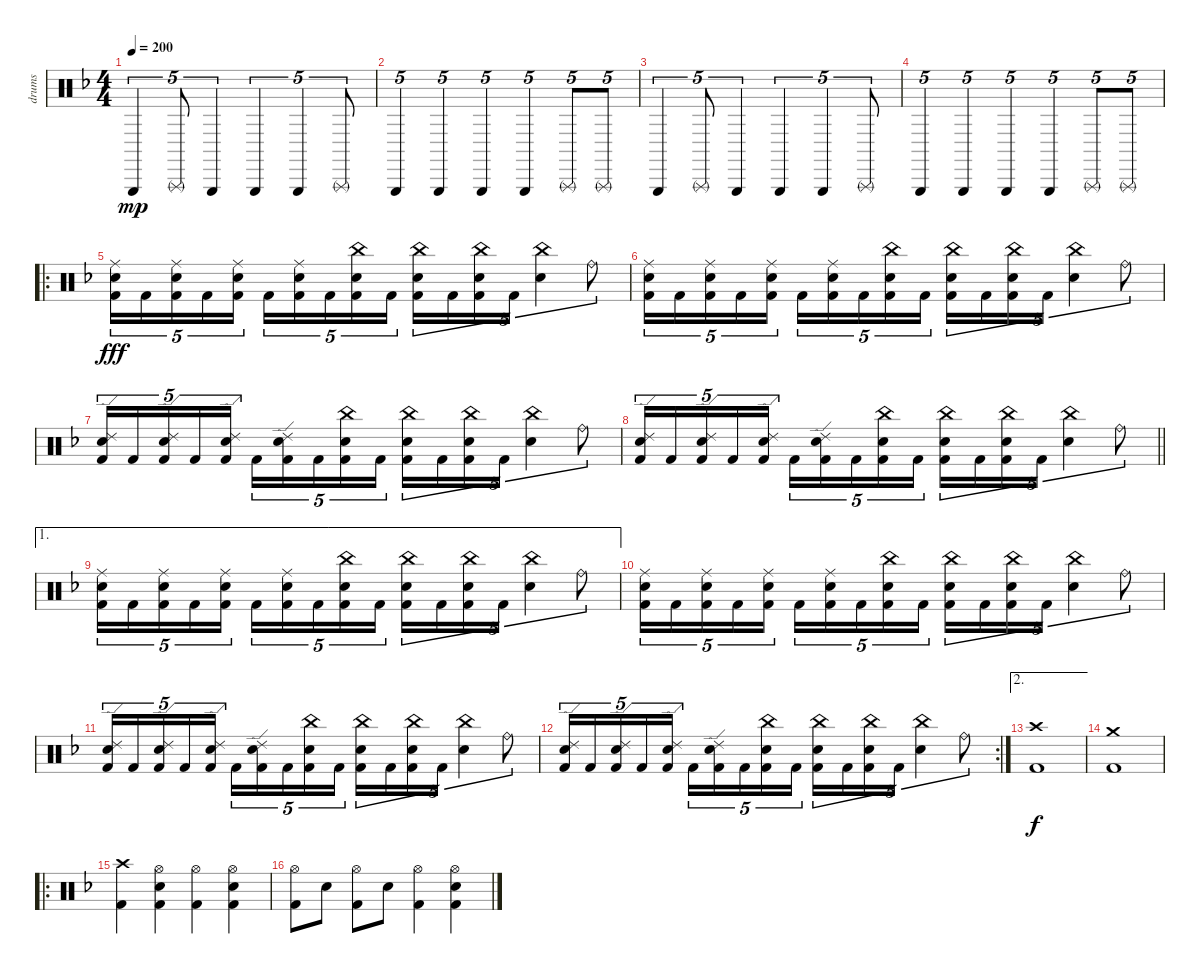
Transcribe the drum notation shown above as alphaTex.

\track ("drums" "drums") {instrument percussion}
\staff {score}
\articulation defaults
\ts (4 4)
\tempo 200
\clef neutral
\ks dminor "Triangle (hit)".4{tu (5 4) dy mp} "Triangle (rnute)".8{tu (5 4)} "Triangle (hit)".4{tu (5 4)} "Triangle (hit)".4{tu (5 4)} "Triangle (hit)".4{tu (5 4)} "Triangle (rnute)".8{tu (5 4)}
|
"Triangle (hit)".4{tu (5 4)} "Triangle (hit)".4{tu (5 4)} "Triangle (hit)".4{tu (5 4)} "Triangle (hit)".4{tu (5 4)} "Triangle (rnute)".8{tu (5 4)} "Triangle (rnute)".8{tu (5 4)} |
"Triangle (hit)".4{tu (5 4)} "Triangle (rnute)".8{tu (5 4)} "Triangle (hit)".4{tu (5 4)} "Triangle (hit)".4{tu (5 4)} "Triangle (hit)".4{tu (5 4)} "Triangle (rnute)".8{tu (5 4)} |
"Triangle (hit)".4{tu (5 4)} "Triangle (hit)".4{tu (5 4)} "Triangle (hit)".4{tu (5 4)} "Triangle (hit)".4{tu (5 4)} "Triangle (rnute)".8{tu (5 4)} "Triangle (rnute)".8{tu (5 4)} |
\ro
("Ride (middle)" "Electric Snare (hit)" "Kick (hit) 2").16{tu (5 4) dy fff} "Kick (hit) 2".16{tu (5 4)} ("Ride (middle)" "Electric Snare (hit)" "Kick (hit) 2").16{tu (5 4)} "Kick (hit) 2".16{tu (5 4)} ("Ride (middle)" "Electric Snare (hit)" "Kick (hit) 2").16{tu (5 4)} "Kick (hit) 2".16{tu (5 4)} ("Ride (middle)" "Electric Snare (hit)" "Kick (hit) 2").16{tu (5 4)} "Kick (hit) 2".16{tu (5 4)} ("China (hit)" "Electric Snare (hit)" "Kick (hit) 2").16{tu (5 4)} "Kick (hit) 2".16{tu (5 4)} ("China (hit)" "Electric Snare (hit)" "Kick (hit) 2").16{tu (5 4)} "Kick (hit) 2".16{tu (5 4)} ("China (hit)" "Electric Snare (hit)" "Kick (hit) 2").16{tu (5 4)} "Kick (hit) 2".16{tu (5 4)} ("China (hit)" "Electric Snare (hit)").4{tu (5 4)} "Ride (bell)".8{tu (5 4)} |
("Ride (middle)" "Electric Snare (hit)" "Kick (hit) 2").16{tu (5 4)} "Kick (hit) 2".16{tu (5 4)} ("Ride (middle)" "Electric Snare (hit)" "Kick (hit) 2").16{tu (5 4)} "Kick (hit) 2".16{tu (5 4)} ("Ride (middle)" "Electric Snare (hit)" "Kick (hit) 2").16{tu (5 4)} "Kick (hit) 2".16{tu (5 4)} ("Ride (middle)" "Electric Snare (hit)" "Kick (hit) 2").16{tu (5 4)} "Kick (hit) 2".16{tu (5 4)} ("China (hit)" "Electric Snare (hit)" "Kick (hit) 2").16{tu (5 4)} "Kick (hit) 2".16{tu (5 4)} ("China (hit)" "Electric Snare (hit)" "Kick (hit) 2").16{tu (5 4)} "Kick (hit) 2".16{tu (5 4)} ("China (hit)" "Electric Snare (hit)" "Kick (hit) 2").16{tu (5 4)} "Kick (hit) 2".16{tu (5 4)} ("China (hit)" "Electric Snare (hit)").4{tu (5 4)} "Ride (bell)".8{tu (5 4)} |
("Ride (edge) 2" "Electric Snare (hit)" "Kick (hit) 2").16{tu (5 4)} "Kick (hit) 2".16{tu (5 4)} ("Ride (edge) 2" "Electric Snare (hit)" "Kick (hit) 2").16{tu (5 4)} "Kick (hit) 2".16{tu (5 4)} ("Ride (edge) 2" "Electric Snare (hit)" "Kick (hit) 2").16{tu (5 4)} "Kick (hit) 2".16{tu (5 4)} ("Ride (edge) 2" "Electric Snare (hit)" "Kick (hit) 2").16{tu (5 4)} "Kick (hit) 2".16{tu (5 4)} ("China (hit)" "Electric Snare (hit)" "Kick (hit) 2").16{tu (5 4)} "Kick (hit) 2".16{tu (5 4)} ("China (hit)" "Electric Snare (hit)" "Kick (hit) 2").16{tu (5 4)} "Kick (hit) 2".16{tu (5 4)} ("China (hit)" "Electric Snare (hit)" "Kick (hit) 2").16{tu (5 4)} "Kick (hit) 2".16{tu (5 4)} ("China (hit)" "Electric Snare (hit)").4{tu (5 4)} "Ride (bell)".8{tu (5 4)} |
\barLineRight lightlight
("Ride (edge) 2" "Electric Snare (hit)" "Kick (hit) 2").16{tu (5 4)} "Kick (hit) 2".16{tu (5 4)} ("Ride (edge) 2" "Electric Snare (hit)" "Kick (hit) 2").16{tu (5 4)} "Kick (hit) 2".16{tu (5 4)} ("Ride (edge) 2" "Electric Snare (hit)" "Kick (hit) 2").16{tu (5 4)} "Kick (hit) 2".16{tu (5 4)} ("Ride (edge) 2" "Electric Snare (hit)" "Kick (hit) 2").16{tu (5 4)} "Kick (hit) 2".16{tu (5 4)} ("China (hit)" "Electric Snare (hit)" "Kick (hit) 2").16{tu (5 4)} "Kick (hit) 2".16{tu (5 4)} ("China (hit)" "Electric Snare (hit)" "Kick (hit) 2").16{tu (5 4)} "Kick (hit) 2".16{tu (5 4)} ("China (hit)" "Electric Snare (hit)" "Kick (hit) 2").16{tu (5 4)} "Kick (hit) 2".16{tu (5 4)} ("China (hit)" "Electric Snare (hit)").4{tu (5 4)} "Ride (bell)".8{tu (5 4)} |
\ae 1
("Ride (middle)" "Electric Snare (hit)" "Kick (hit) 2").16{tu (5 4)} "Kick (hit) 2".16{tu (5 4)} ("Ride (middle)" "Electric Snare (hit)" "Kick (hit) 2").16{tu (5 4)} "Kick (hit) 2".16{tu (5 4)} ("Ride (middle)" "Electric Snare (hit)" "Kick (hit) 2").16{tu (5 4)} "Kick (hit) 2".16{tu (5 4)} ("Ride (middle)" "Electric Snare (hit)" "Kick (hit) 2").16{tu (5 4)} "Kick (hit) 2".16{tu (5 4)} ("China (hit)" "Electric Snare (hit)" "Kick (hit) 2").16{tu (5 4)} "Kick (hit) 2".16{tu (5 4)} ("China (hit)" "Electric Snare (hit)" "Kick (hit) 2").16{tu (5 4)} "Kick (hit) 2".16{tu (5 4)} ("China (hit)" "Electric Snare (hit)" "Kick (hit) 2").16{tu (5 4)} "Kick (hit) 2".16{tu (5 4)} ("China (hit)" "Electric Snare (hit)").4{tu (5 4)} "Ride (bell)".8{tu (5 4)} |
("Ride (middle)" "Electric Snare (hit)" "Kick (hit) 2").16{tu (5 4)} "Kick (hit) 2".16{tu (5 4)} ("Ride (middle)" "Electric Snare (hit)" "Kick (hit) 2").16{tu (5 4)} "Kick (hit) 2".16{tu (5 4)} ("Ride (middle)" "Electric Snare (hit)" "Kick (hit) 2").16{tu (5 4)} "Kick (hit) 2".16{tu (5 4)} ("Ride (middle)" "Electric Snare (hit)" "Kick (hit) 2").16{tu (5 4)} "Kick (hit) 2".16{tu (5 4)} ("China (hit)" "Electric Snare (hit)" "Kick (hit) 2").16{tu (5 4)} "Kick (hit) 2".16{tu (5 4)} ("China (hit)" "Electric Snare (hit)" "Kick (hit) 2").16{tu (5 4)} "Kick (hit) 2".16{tu (5 4)} ("China (hit)" "Electric Snare (hit)" "Kick (hit) 2").16{tu (5 4)} "Kick (hit) 2".16{tu (5 4)} ("China (hit)" "Electric Snare (hit)").4{tu (5 4)} "Ride (bell)".8{tu (5 4)} |
("Ride (edge) 2" "Electric Snare (hit)" "Kick (hit) 2").16{tu (5 4)} "Kick (hit) 2".16{tu (5 4)} ("Ride (edge) 2" "Electric Snare (hit)" "Kick (hit) 2").16{tu (5 4)} "Kick (hit) 2".16{tu (5 4)} ("Ride (edge) 2" "Electric Snare (hit)" "Kick (hit) 2").16{tu (5 4)} "Kick (hit) 2".16{tu (5 4)} ("Ride (edge) 2" "Electric Snare (hit)" "Kick (hit) 2").16{tu (5 4)} "Kick (hit) 2".16{tu (5 4)} ("China (hit)" "Electric Snare (hit)" "Kick (hit) 2").16{tu (5 4)} "Kick (hit) 2".16{tu (5 4)} ("China (hit)" "Electric Snare (hit)" "Kick (hit) 2").16{tu (5 4)} "Kick (hit) 2".16{tu (5 4)} ("China (hit)" "Electric Snare (hit)" "Kick (hit) 2").16{tu (5 4)} "Kick (hit) 2".16{tu (5 4)} ("China (hit)" "Electric Snare (hit)").4{tu (5 4)} "Ride (bell)".8{tu (5 4)} |
\rc 2
("Ride (edge) 2" "Electric Snare (hit)" "Kick (hit) 2").16{tu (5 4)} "Kick (hit) 2".16{tu (5 4)} ("Ride (edge) 2" "Electric Snare (hit)" "Kick (hit) 2").16{tu (5 4)} "Kick (hit) 2".16{tu (5 4)} ("Ride (edge) 2" "Electric Snare (hit)" "Kick (hit) 2").16{tu (5 4)} "Kick (hit) 2".16{tu (5 4)} ("Ride (edge) 2" "Electric Snare (hit)" "Kick (hit) 2").16{tu (5 4)} "Kick (hit) 2".16{tu (5 4)} ("China (hit)" "Electric Snare (hit)" "Kick (hit) 2").16{tu (5 4)} "Kick (hit) 2".16{tu (5 4)} ("China (hit)" "Electric Snare (hit)" "Kick (hit) 2").16{tu (5 4)} "Kick (hit) 2".16{tu (5 4)} ("China (hit)" "Electric Snare (hit)" "Kick (hit) 2").16{tu (5 4)} "Kick (hit) 2".16{tu (5 4)} ("China (hit)" "Electric Snare (hit)").4{tu (5 4)} "Ride (bell)".8{tu (5 4)} |
\ae 2
("Crash high (hit)" "Kick (hit) 2").1{dy f} |
("Crash medium (hit)" "Kick (hit) 2").1 |
\ro
("Crash high (hit)" "Kick (hit) 2").4 ("Hi-Hat (open)" "Electric Snare (hit)" "Kick (hit) 2").4 ("Hi-Hat (open)" "Kick (hit) 2").4 ("Hi-Hat (open)" "Electric Snare (hit)" "Kick (hit) 2").4 |
("Hi-Hat (open)" "Kick (hit) 2").8 "Electric Snare (hit)".8 ("Hi-Hat (open)" "Kick (hit) 2").8 "Electric Snare (hit)".8 ("Hi-Hat (open)" "Kick (hit) 2").4 ("Hi-Hat (open)" "Electric Snare (hit)" "Kick (hit) 2").4
